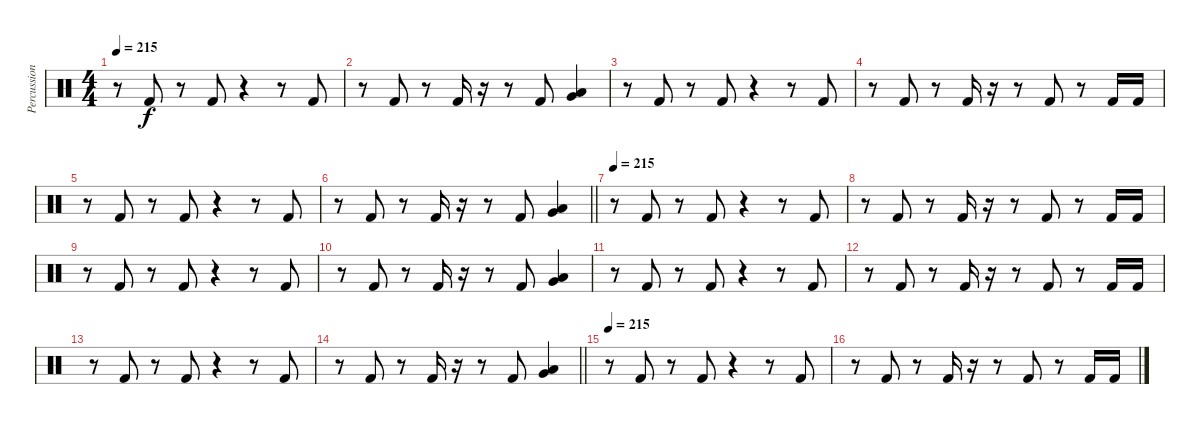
\track ("Percussion" "Percussion") {instrument percussion}
\staff {score}
\articulation defaults
\ts (4 4)
\tempo 215
\clef neutral
\ks c
r.8{dy f} "Kick (hit) 2".8 r.8 "Kick (hit) 2".8 r.4 r.8 "Kick (hit) 2".8 |
r.8 "Kick (hit) 2".8 r.8 "Kick (hit) 2".16 r.16 r.8 "Kick (hit) 2".8 ("Very Low Tom (hit)" "Low Tom (hit)").4 |
r.8 "Kick (hit) 2".8 r.8 "Kick (hit) 2".8 r.4 r.8 "Kick (hit) 2".8 |
r.8 "Kick (hit) 2".8 r.8 "Kick (hit) 2".16 r.16 r.8 "Kick (hit) 2".8 r.8 "Kick (hit) 2".16 "Kick (hit) 2".16 |
r.8 "Kick (hit) 2".8 r.8 "Kick (hit) 2".8 r.4 r.8 "Kick (hit) 2".8 |
\barLineRight lightlight
r.8 "Kick (hit) 2".8 r.8 "Kick (hit) 2".16 r.16 r.8 "Kick (hit) 2".8 ("Very Low Tom (hit)" "Low Tom (hit)").4 |
\tempo 215
r.8 "Kick (hit) 2".8 r.8 "Kick (hit) 2".8 r.4 r.8 "Kick (hit) 2".8 |
r.8 "Kick (hit) 2".8 r.8 "Kick (hit) 2".16 r.16 r.8 "Kick (hit) 2".8 r.8 "Kick (hit) 2".16 "Kick (hit) 2".16 |
r.8 "Kick (hit) 2".8 r.8 "Kick (hit) 2".8 r.4 r.8 "Kick (hit) 2".8 |
r.8 "Kick (hit) 2".8 r.8 "Kick (hit) 2".16 r.16 r.8 "Kick (hit) 2".8 ("Very Low Tom (hit)" "Low Tom (hit)").4 |
r.8 "Kick (hit) 2".8 r.8 "Kick (hit) 2".8 r.4 r.8 "Kick (hit) 2".8 |
r.8 "Kick (hit) 2".8 r.8 "Kick (hit) 2".16 r.16 r.8 "Kick (hit) 2".8 r.8 "Kick (hit) 2".16 "Kick (hit) 2".16 |
r.8 "Kick (hit) 2".8 r.8 "Kick (hit) 2".8 r.4 r.8 "Kick (hit) 2".8 |
\barLineRight lightlight
r.8 "Kick (hit) 2".8 r.8 "Kick (hit) 2".16 r.16 r.8 "Kick (hit) 2".8 ("Very Low Tom (hit)" "Low Tom (hit)").4 |
\tempo 215
r.8 "Kick (hit) 2".8 r.8 "Kick (hit) 2".8 r.4 r.8 "Kick (hit) 2".8 |
r.8 "Kick (hit) 2".8 r.8 "Kick (hit) 2".16 r.16 r.8 "Kick (hit) 2".8 r.8 "Kick (hit) 2".16 "Kick (hit) 2".16
